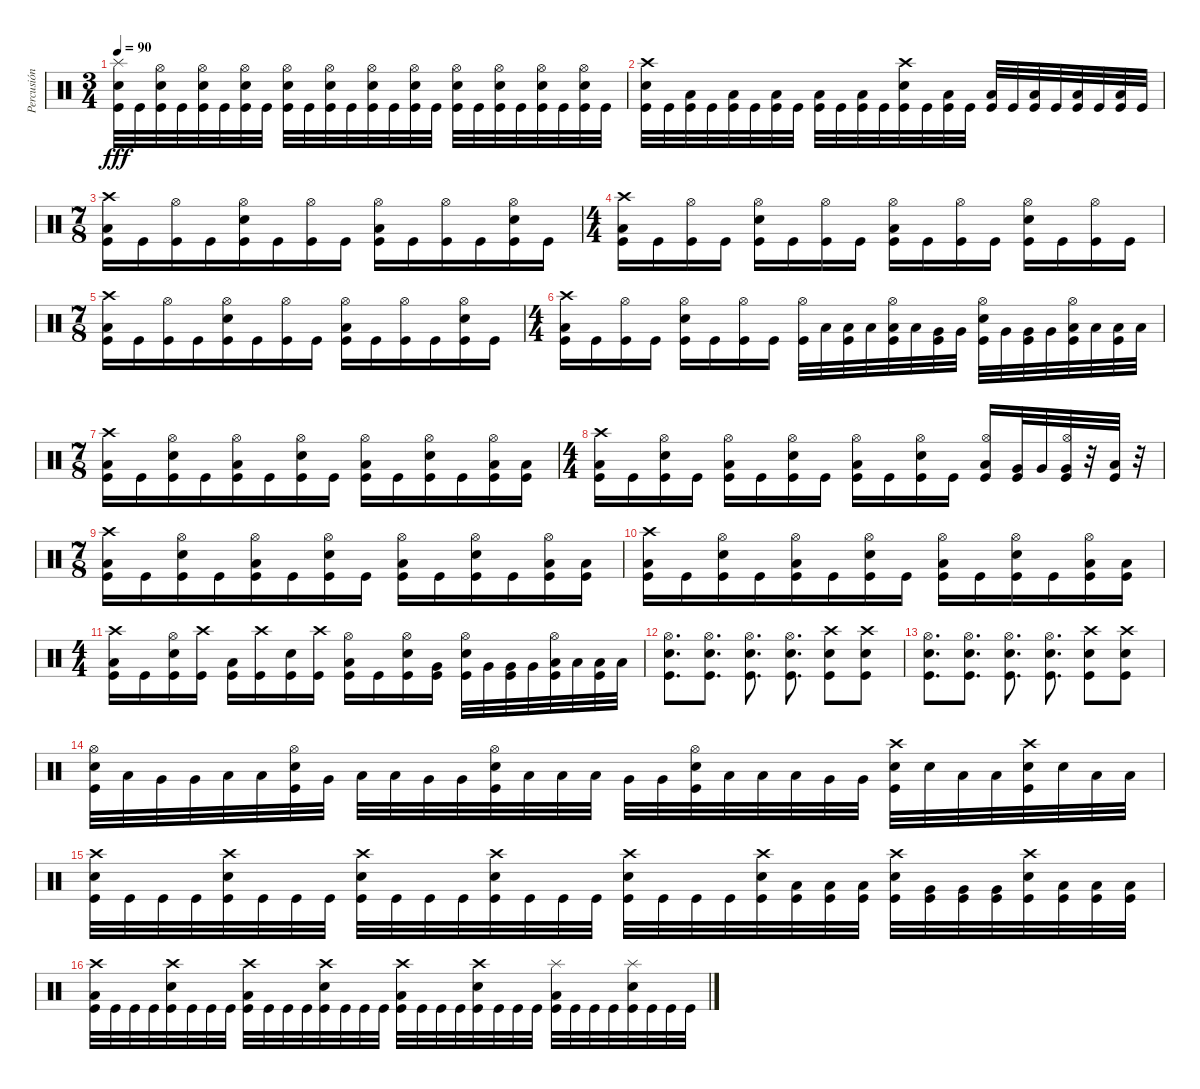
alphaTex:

\track ("Percusión" "Percusión") {instrument percussion}
\staff {score}
\articulation defaults
\ts (3 4)
\tempo 90
\clef neutral
\ks c
("Splash (hit)" "Snare (hit) 2" "Kick (hit)").32{dy fff} "Kick (hit)".32 ("Hi-Hat (open)" "Snare (hit) 2" "Kick (hit)").32 "Kick (hit)".32 ("Hi-Hat (open)" "Snare (hit) 2" "Kick (hit)").32 "Kick (hit)".32 ("Hi-Hat (open)" "Snare (hit) 2" "Kick (hit)").32 "Kick (hit)".32 ("Hi-Hat (open)" "Snare (hit) 2" "Kick (hit)").32 "Kick (hit)".32 ("Hi-Hat (open)" "Snare (hit) 2" "Kick (hit)").32 "Kick (hit)".32 ("Hi-Hat (open)" "Snare (hit) 2" "Kick (hit)").32 "Kick (hit)".32 ("Hi-Hat (open)" "Snare (hit) 2" "Kick (hit)").32 "Kick (hit)".32 ("Hi-Hat (open)" "Snare (hit) 2" "Kick (hit)").32 "Kick (hit)".32 ("Hi-Hat (open)" "Snare (hit) 2" "Kick (hit)").32 "Kick (hit)".32 ("Hi-Hat (open)" "Snare (hit) 2" "Kick (hit)").32 "Kick (hit)".32 ("Hi-Hat (open)" "Snare (hit) 2" "Kick (hit)").32 "Kick (hit)".32 |
("Crash high (hit)" "Snare (hit) 2" "Kick (hit)").32 "Kick (hit)".32 ("Low Floor Tom (hit)" "Kick (hit)").32 "Kick (hit)".32 ("Low Floor Tom (hit)" "Kick (hit)").32 "Kick (hit)".32 ("Low Floor Tom (hit)" "Kick (hit)").32 "Kick (hit)".32 ("Low Floor Tom (hit)" "Kick (hit)").32 "Kick (hit)".32 ("Low Floor Tom (hit)" "Kick (hit)").32 "Kick (hit)".32 ("Crash high (hit)" "Snare (hit) 2" "Kick (hit)").32 "Kick (hit)".32 ("Low Floor Tom (hit)" "Kick (hit)").32 "Kick (hit)".32 ("Low Floor Tom (hit)" "Kick (hit)").32 "Kick (hit)".32 ("Low Floor Tom (hit)" "Kick (hit)").32 "Kick (hit)".32 ("Low Floor Tom (hit)" "Kick (hit)").32 "Kick (hit)".32 ("Low Floor Tom (hit)" "Kick (hit)").32 "Kick (hit)".32 |
\ts (7 8)
("Crash high (hit)" "Low Floor Tom (hit)" "Kick (hit)").16 "Kick (hit)".16 ("Hi-Hat (open)" "Kick (hit)").16 "Kick (hit)".16 ("Hi-Hat (open)" "Snare (hit) 2" "Kick (hit)").16 "Kick (hit)".16 ("Hi-Hat (open)" "Kick (hit)").16 "Kick (hit)".16 ("Hi-Hat (open)" "Low Floor Tom (hit)" "Kick (hit)").16 "Kick (hit)".16 ("Hi-Hat (open)" "Kick (hit)").16 "Kick (hit)".16 ("Hi-Hat (open)" "Snare (hit) 2" "Kick (hit)").16 "Kick (hit)".16 |
\ts (4 4)
("Crash high (hit)" "Low Floor Tom (hit)" "Kick (hit)").16 "Kick (hit)".16 ("Hi-Hat (open)" "Kick (hit)").16 "Kick (hit)".16 ("Hi-Hat (open)" "Snare (hit) 2" "Kick (hit)").16 "Kick (hit)".16 ("Hi-Hat (open)" "Kick (hit)").16 "Kick (hit)".16 ("Hi-Hat (open)" "Low Floor Tom (hit)" "Kick (hit)").16 "Kick (hit)".16 ("Hi-Hat (open)" "Kick (hit)").16 "Kick (hit)".16 ("Hi-Hat (open)" "Snare (hit) 2" "Kick (hit)").16 "Kick (hit)".16 ("Hi-Hat (open)" "Kick (hit)").16 "Kick (hit)".16 |
\ts (7 8)
("Crash high (hit)" "Low Floor Tom (hit)" "Kick (hit)").16 "Kick (hit)".16 ("Hi-Hat (open)" "Kick (hit)").16 "Kick (hit)".16 ("Hi-Hat (open)" "Snare (hit) 2" "Kick (hit)").16 "Kick (hit)".16 ("Hi-Hat (open)" "Kick (hit)").16 "Kick (hit)".16 ("Hi-Hat (open)" "Low Floor Tom (hit)" "Kick (hit)").16 "Kick (hit)".16 ("Hi-Hat (open)" "Kick (hit)").16 "Kick (hit)".16 ("Hi-Hat (open)" "Snare (hit) 2" "Kick (hit)").16 "Kick (hit)".16 |
\ts (4 4)
("Crash high (hit)" "Low Floor Tom (hit)" "Kick (hit)").16 "Kick (hit)".16 ("Hi-Hat (open)" "Kick (hit)").16 "Kick (hit)".16 ("Hi-Hat (open)" "Snare (hit) 2" "Kick (hit)").16 "Kick (hit)".16 ("Hi-Hat (open)" "Kick (hit)").16 "Kick (hit)".16 ("Hi-Hat (open)" "Kick (hit)").32 "Low Tom (hit)".32 ("Low Tom (hit)" "Kick (hit)").32 "Low Tom (hit)".32 ("Hi-Hat (open)" "Low Tom (hit)" "Kick (hit)").32 "Low Tom (hit)".32 ("Very Low Tom (hit)" "Kick (hit)").32 "Very Low Tom (hit)".32 ("Hi-Hat (open)" "Snare (hit) 2" "Kick (hit)").32 "Very Low Tom (hit)".32 ("Very Low Tom (hit)" "Kick (hit)").32 "Very Low Tom (hit)".32 ("Hi-Hat (open)" "Low Floor Tom (hit)" "Kick (hit)").32 "Low Floor Tom (hit)".32 ("Low Floor Tom (hit)" "Kick (hit)").32 "Low Floor Tom (hit)".32 |
\ts (7 8)
("Crash high (hit)" "Low Floor Tom (hit)" "Kick (hit)").16 "Kick (hit)".16 ("Hi-Hat (open)" "Snare (hit) 2" "Kick (hit)").16 "Kick (hit)".16 ("Hi-Hat (open)" "Low Floor Tom (hit)" "Kick (hit)").16 "Kick (hit)".16 ("Hi-Hat (open)" "Snare (hit) 2" "Kick (hit)").16 "Kick (hit)".16 ("Hi-Hat (open)" "Low Floor Tom (hit)" "Kick (hit)").16 "Kick (hit)".16 ("Hi-Hat (open)" "Snare (hit) 2" "Kick (hit)").16 "Kick (hit)".16 ("Hi-Hat (open)" "Low Floor Tom (hit)" "Kick (hit)").16 ("Low Floor Tom (hit)" "Kick (hit)").16 |
\ts (4 4)
("Crash high (hit)" "Low Floor Tom (hit)" "Kick (hit)").16 "Kick (hit)".16 ("Hi-Hat (open)" "Snare (hit) 2" "Kick (hit)").16 "Kick (hit)".16 ("Hi-Hat (open)" "Low Floor Tom (hit)" "Kick (hit)").16 "Kick (hit)".16 ("Hi-Hat (open)" "Snare (hit) 2" "Kick (hit)").16 "Kick (hit)".16 ("Hi-Hat (open)" "Low Floor Tom (hit)" "Kick (hit)").16 "Kick (hit)".16 ("Hi-Hat (open)" "Snare (hit) 2" "Kick (hit)").16 "Kick (hit)".16 ("Hi-Hat (open)" "Low Floor Tom (hit)" "Kick (hit)").16 ("Very Low Tom (hit)" "Kick (hit)").32 "Very Low Tom (hit)".32 ("Hi-Hat (open)" "Very Low Tom (hit)" "Kick (hit)").32 r.32 ("Low Floor Tom (hit)" "Kick (hit)").32 r.32 |
\ts (7 8)
("Crash high (hit)" "Low Floor Tom (hit)" "Kick (hit)").16 "Kick (hit)".16 ("Hi-Hat (open)" "Snare (hit) 2" "Kick (hit)").16 "Kick (hit)".16 ("Hi-Hat (open)" "Low Floor Tom (hit)" "Kick (hit)").16 "Kick (hit)".16 ("Hi-Hat (open)" "Snare (hit) 2" "Kick (hit)").16 "Kick (hit)".16 ("Hi-Hat (open)" "Low Floor Tom (hit)" "Kick (hit)").16 "Kick (hit)".16 ("Hi-Hat (open)" "Snare (hit) 2" "Kick (hit)").16 "Kick (hit)".16 ("Hi-Hat (open)" "Low Floor Tom (hit)" "Kick (hit)").16 ("Low Floor Tom (hit)" "Kick (hit)").16 |
("Crash high (hit)" "Low Floor Tom (hit)" "Kick (hit)").16 "Kick (hit)".16 ("Hi-Hat (open)" "Snare (hit) 2" "Kick (hit)").16 "Kick (hit)".16 ("Hi-Hat (open)" "Low Floor Tom (hit)" "Kick (hit)").16 "Kick (hit)".16 ("Hi-Hat (open)" "Snare (hit) 2" "Kick (hit)").16 "Kick (hit)".16 ("Hi-Hat (open)" "Low Floor Tom (hit)" "Kick (hit)").16 "Kick (hit)".16 ("Hi-Hat (open)" "Snare (hit) 2" "Kick (hit)").16 "Kick (hit)".16 ("Hi-Hat (open)" "Low Floor Tom (hit)" "Kick (hit)").16 ("Low Floor Tom (hit)" "Kick (hit)").16 |
\ts (4 4)
("Crash high (hit)" "Low Floor Tom (hit)" "Kick (hit)").16 "Kick (hit)".16 ("Hi-Hat (open)" "Snare (hit) 2" "Kick (hit)").16 ("Crash high (hit)" "Kick (hit)").16 ("Low Floor Tom (hit)" "Kick (hit)").16 ("Crash high (hit)" "Kick (hit)").16 ("Snare (hit) 2" "Kick (hit)").16 ("Crash high (hit)" "Kick (hit)").16 ("Hi-Hat (open)" "Low Floor Tom (hit)" "Kick (hit)").16 "Kick (hit)".16 ("Hi-Hat (open)" "Snare (hit) 2" "Kick (hit)").16 ("Very Low Tom (hit)" "Kick (hit)").16 ("Hi-Hat (open)" "Snare (hit) 2" "Kick (hit)").32 "Very Low Tom (hit)".32 ("Very Low Tom (hit)" "Kick (hit)").32 "Very Low Tom (hit)".32 ("Hi-Hat (open)" "Low Floor Tom (hit)" "Kick (hit)").32 "Low Floor Tom (hit)".32 ("Low Floor Tom (hit)" "Kick (hit)").32 "Low Floor Tom (hit)".32 |
("Hi-Hat (open)" "Snare (hit) 2" "Kick (hit)").8{d} ("Hi-Hat (open)" "Snare (hit) 2" "Kick (hit)").8{d} ("Hi-Hat (open)" "Snare (hit) 2" "Kick (hit)").8{d} ("Hi-Hat (open)" "Snare (hit) 2" "Kick (hit)").8{d} ("Crash high (hit)" "Snare (hit) 2" "Kick (hit)").8 ("Crash high (hit)" "Snare (hit) 2" "Kick (hit)").8 |
("Hi-Hat (open)" "Snare (hit) 2" "Kick (hit)").8{d} ("Hi-Hat (open)" "Snare (hit) 2" "Kick (hit)").8{d} ("Hi-Hat (open)" "Snare (hit) 2" "Kick (hit)").8{d} ("Hi-Hat (open)" "Snare (hit) 2" "Kick (hit)").8{d} ("Crash high (hit)" "Snare (hit) 2" "Kick (hit)").8 ("Crash high (hit)" "Snare (hit) 2" "Kick (hit)").8 |
("Hi-Hat (open)" "Snare (hit) 2" "Kick (hit)").32 "Low Tom (hit)".32 "Very Low Tom (hit)".32 "Very Low Tom (hit)".32 "Low Floor Tom (hit)".32 "Low Floor Tom (hit)".32 ("Hi-Hat (open)" "Snare (hit) 2" "Kick (hit)").32 "Very Low Tom (hit)".32 "Low Tom (hit)".32 "Low Tom (hit)".32 "Very Low Tom (hit)".32 "Very Low Tom (hit)".32 ("Hi-Hat (open)" "Snare (hit) 2" "Kick (hit)").32 "Low Floor Tom (hit)".32 "Low Tom (hit)".32 "Low Tom (hit)".32 "Very Low Tom (hit)".32 "Very Low Tom (hit)".32 ("Hi-Hat (open)" "Snare (hit) 2" "Kick (hit)").32 "Low Floor Tom (hit)".32 "Low Tom (hit)".32 "Low Tom (hit)".32 "Very Low Tom (hit)".32 "Very Low Tom (hit)".32 ("Crash high (hit)" "Snare (hit) 2" "Kick (hit)").32 "Snare (hit) 2".32 "Low Tom (hit)".32 "Low Tom (hit)".32 ("Crash high (hit)" "Snare (hit) 2" "Kick (hit)").32 "Snare (hit) 2".32 "Low Floor Tom (hit)".32 "Low Floor Tom (hit)".32 |
("Crash high (hit)" "Snare (hit) 2" "Kick (hit)").32 "Kick (hit)".32 "Kick (hit)".32 "Kick (hit)".32 ("Crash high (hit)" "Snare (hit) 2" "Kick (hit)").32 "Kick (hit)".32 "Kick (hit)".32 "Kick (hit)".32 ("Crash high (hit)" "Snare (hit) 2" "Kick (hit)").32 "Kick (hit)".32 "Kick (hit)".32 "Kick (hit)".32 ("Crash high (hit)" "Snare (hit) 2" "Kick (hit)").32 "Kick (hit)".32 "Kick (hit)".32 "Kick (hit)".32 ("Crash high (hit)" "Snare (hit) 2" "Kick (hit)").32 "Kick (hit)".32 "Kick (hit)".32 "Kick (hit)".32 ("Crash high (hit)" "Snare (hit) 2" "Kick (hit)").32 ("Low Tom (hit)" "Kick (hit)").32 ("Low Tom (hit)" "Kick (hit)").32 ("Low Tom (hit)" "Kick (hit)").32 ("Crash high (hit)" "Snare (hit) 2" "Kick (hit)").32 ("Very Low Tom (hit)" "Kick (hit)").32 ("Very Low Tom (hit)" "Kick (hit)").32 ("Very Low Tom (hit)" "Kick (hit)").32 ("Crash high (hit)" "Snare (hit) 2" "Kick (hit)").32 ("Low Floor Tom (hit)" "Kick (hit)").32 ("Low Floor Tom (hit)" "Kick (hit)").32 ("Low Floor Tom (hit)" "Kick (hit)").32 |
("Crash high (hit)" "Low Floor Tom (hit)" "Kick (hit)").32 "Kick (hit)".32 "Kick (hit)".32 "Kick (hit)".32 ("Crash high (hit)" "Snare (hit) 2" "Kick (hit)").32 "Kick (hit)".32 "Kick (hit)".32 "Kick (hit)".32 ("Crash high (hit)" "Low Floor Tom (hit)" "Kick (hit)").32 "Kick (hit)".32 "Kick (hit)".32 "Kick (hit)".32 ("Crash high (hit)" "Snare (hit) 2" "Kick (hit)").32 "Kick (hit)".32 "Kick (hit)".32 "Kick (hit)".32 ("Crash high (hit)" "Low Floor Tom (hit)" "Kick (hit)").32 "Kick (hit)".32 "Kick (hit)".32 "Kick (hit)".32 ("Crash high (hit)" "Snare (hit) 2" "Kick (hit)").32 "Kick (hit)".32 "Kick (hit)".32 "Kick (hit)".32 ("Splash (hit)" "Low Floor Tom (hit)" "Kick (hit)").32 "Kick (hit)".32 "Kick (hit)".32 "Kick (hit)".32 ("Splash (hit)" "Snare (hit) 2" "Kick (hit)").32 "Kick (hit)".32 "Kick (hit)".32 "Kick (hit)".32
